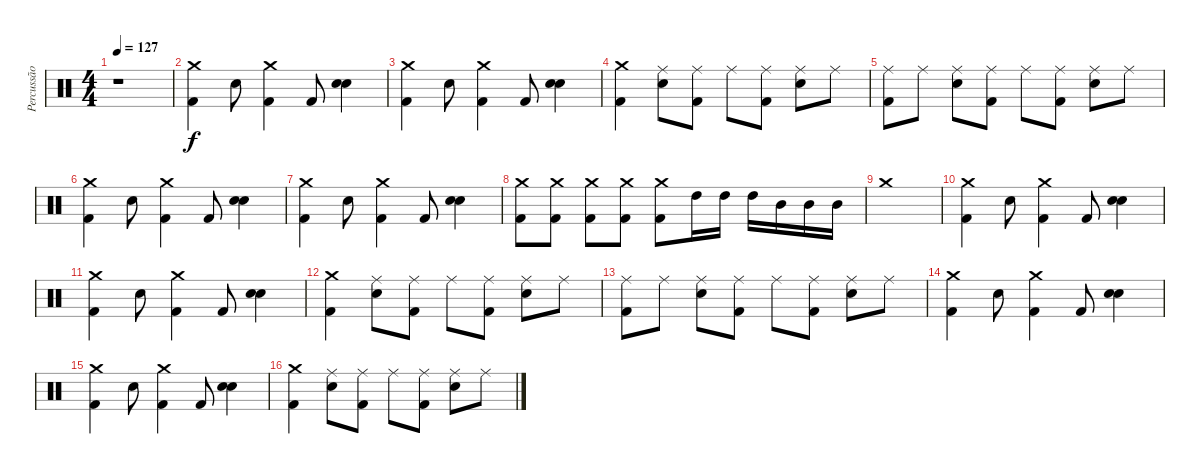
\track ("Percussão" "Percussão") {instrument percussion}
\staff {score}
\articulation defaults
\ts (4 4)
\tempo 127
\clef neutral
\ks c
r.1{dy f} |
("Crash medium (hit)" "Kick (hit) 2").4 "Electric Snare (hit)".8 ("Crash medium (hit)" "Kick (hit) 2").4 "Kick (hit) 2".8 ("Electric Snare (hit)" "Electric Snare (hit)").4 |
("Crash medium (hit)" "Kick (hit) 2").4 "Electric Snare (hit)".8 ("Crash medium (hit)" "Kick (hit) 2").4 "Kick (hit) 2".8 ("Electric Snare (hit)" "Electric Snare (hit)").4 |
("Crash medium (hit)" "Kick (hit) 2").4 ("Ride (middle)" "Electric Snare (hit)").8 ("Ride (middle)" "Kick (hit) 2").8 "Ride (middle)".8 ("Ride (middle)" "Kick (hit) 2").8 ("Ride (middle)" "Electric Snare (hit)").8 "Ride (middle)".8 |
("Ride (middle)" "Kick (hit) 2").8 "Ride (middle)".8 ("Ride (middle)" "Electric Snare (hit)").8 ("Ride (middle)" "Kick (hit) 2").8 "Ride (middle)".8 ("Ride (middle)" "Kick (hit) 2").8 ("Ride (middle)" "Electric Snare (hit)").8 "Ride (middle)".8 |
("Crash medium (hit)" "Kick (hit) 2").4 "Electric Snare (hit)".8 ("Crash medium (hit)" "Kick (hit) 2").4 "Kick (hit) 2".8 ("Electric Snare (hit)" "Electric Snare (hit)").4 |
("Crash medium (hit)" "Kick (hit) 2").4 "Electric Snare (hit)".8 ("Crash medium (hit)" "Kick (hit) 2").4 "Kick (hit) 2".8 ("Electric Snare (hit)" "Electric Snare (hit)").4 |
("Crash medium (hit)" "Kick (hit) 2").8 ("Crash medium (hit)" "Kick (hit) 2").8 ("Crash medium (hit)" "Kick (hit) 2").8 ("Crash medium (hit)" "Kick (hit) 2").8 ("Crash medium (hit)" "Kick (hit) 2").8 "High Tom (hit)".16 "High Tom (hit)".16 "High Tom (hit)".16 "Mid Tom (hit)".16 "Mid Tom (hit)".16 "Mid Tom (hit)".16 |
"Crash medium (hit)".1 |
("Crash medium (hit)" "Kick (hit) 2").4 "Electric Snare (hit)".8 ("Crash medium (hit)" "Kick (hit) 2").4 "Kick (hit) 2".8 ("Electric Snare (hit)" "Electric Snare (hit)").4 |
("Crash medium (hit)" "Kick (hit) 2").4 "Electric Snare (hit)".8 ("Crash medium (hit)" "Kick (hit) 2").4 "Kick (hit) 2".8 ("Electric Snare (hit)" "Electric Snare (hit)").4 |
("Crash medium (hit)" "Kick (hit) 2").4 ("Ride (middle)" "Electric Snare (hit)").8 ("Ride (middle)" "Kick (hit) 2").8 "Ride (middle)".8 ("Ride (middle)" "Kick (hit) 2").8 ("Ride (middle)" "Electric Snare (hit)").8 "Ride (middle)".8 |
("Ride (middle)" "Kick (hit) 2").8 "Ride (middle)".8 ("Ride (middle)" "Electric Snare (hit)").8 ("Ride (middle)" "Kick (hit) 2").8 "Ride (middle)".8 ("Ride (middle)" "Kick (hit) 2").8 ("Ride (middle)" "Electric Snare (hit)").8 "Ride (middle)".8 |
("Crash medium (hit)" "Kick (hit) 2").4 "Electric Snare (hit)".8 ("Crash medium (hit)" "Kick (hit) 2").4 "Kick (hit) 2".8 ("Electric Snare (hit)" "Electric Snare (hit)").4 |
("Crash medium (hit)" "Kick (hit) 2").4 "Electric Snare (hit)".8 ("Crash medium (hit)" "Kick (hit) 2").4 "Kick (hit) 2".8 ("Electric Snare (hit)" "Electric Snare (hit)").4 |
("Crash medium (hit)" "Kick (hit) 2").4 ("Ride (middle)" "Electric Snare (hit)").8 ("Ride (middle)" "Kick (hit) 2").8 "Ride (middle)".8 ("Ride (middle)" "Kick (hit) 2").8 ("Ride (middle)" "Electric Snare (hit)").8 "Ride (middle)".8
